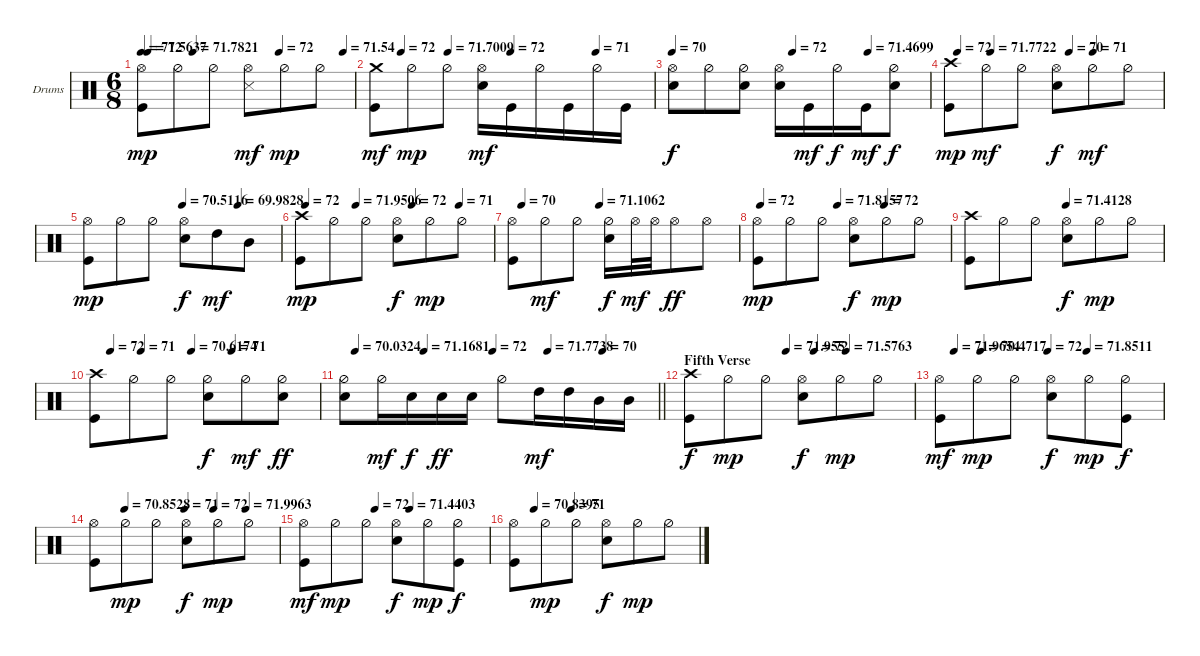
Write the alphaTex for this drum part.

\bracketExtendMode groupsimilarinstruments
\firstSystemTrackNameOrientation horizontal
\otherSystemsTrackNameOrientation horizontal
\track ("Drums" "Drums") {instrument percussion}
\staff {score}
\articulation defaults
\ts (6 8)
\tempo
71.5637
\tempo (72 0.03125)
\tempo (71.7821 0.24375)
\tempo (72 0.65)
\tempo (71.54 0.95)
\accidentals auto
\clef neutral
\ottava regular
\simile none
\ks c
("Hi-Hat (open)" "Kick (hit)").8{dy mp} "Hi-Hat (half)".8 "Hi-Hat (half)".8 ("Hi-Hat (open)" "Snare (side stick) 3").8{dy mf} "Hi-Hat (half)".8{dy mp} "Hi-Hat (half)".8 |
\tempo (72 0.09375)
\tempo (71.7009 0.2625)
\tempo (72 0.4875)
\tempo (71 0.79375)
("Crash medium (hit)" "Kick (hit)").8{dy mf} "Hi-Hat (half)".8{dy mp} "Hi-Hat (half)".8 ("Hi-Hat (open)" "Snare (hit) 2").16{dy mf} "Kick (hit)".16 "Hi-Hat (half)".16 "Kick (hit)".16 "Hi-Hat (half)".16 "Kick (hit)".16 |
\tempo 70
\tempo (72 0.46875)
\tempo (71.4699 0.7625)
("Hi-Hat (open)" "Snare (hit) 2").8{dy f} "Hi-Hat (half)".8 ("Hi-Hat (half)" "Snare (hit) 2").8 ("Hi-Hat (open)" "Snare (hit) 2").16 "Kick (hit)".16{dy mf} "Hi-Hat (half)".16{dy f} "Kick (hit)".16{dy mf} ("Hi-Hat (half)" "Snare (hit) 2").8{dy f} |
\tempo (72 0.0375)
\tempo (71.7722 0.19375)
\tempo (70 0.5625)
\tempo (71 0.675)
("Crash high (hit)" "Kick (hit)").8{dy mp} "Hi-Hat (half)".8{dy mf} "Hi-Hat (half)".8 ("Hi-Hat (open)" "Snare (hit) 2").8{dy f} "Hi-Hat (half)".8{dy mf} "Hi-Hat (half)".8 |
\tempo (70.5116 0.49375)
\tempo (69.9828 0.78125)
("Hi-Hat (open)" "Kick (hit)").8{dy mp} "Hi-Hat (half)".8 "Hi-Hat (half)".8 ("Hi-Hat (open)" "Snare (hit) 2").8{dy f} "High Tom (hit)".8{dy mf} "Mid Tom (hit)".8 |
\tempo (72 0.025)
\tempo (71.9506 0.2875)
\tempo (72 0.58125)
\tempo (71 0.825)
("Crash high (hit)" "Kick (hit)").8{dy mp} "Hi-Hat (half)".8 "Hi-Hat (half)".8 ("Hi-Hat (open)" "Snare (hit) 2").8{dy f} "Hi-Hat (half)".8{dy mp} "Hi-Hat (half)".8 |
\tempo (70 0.04375)
\tempo (71.1062 0.3875)
("Hi-Hat (open)" "Kick (hit)").8 "Hi-Hat (half)".8{dy mf} "Hi-Hat (half)".8 ("Hi-Hat (half)" "Snare (hit) 2").16{dy f} "Hi-Hat (open)".32{dy mf} "Hi-Hat (open)".32 "Hi-Hat (open)".8{dy ff} "Hi-Hat (open)".8 |
\tempo (72 0.01875)
\tempo (71.8157 0.41875)
\tempo (72 0.6625)
("Hi-Hat (open)" "Kick (hit)").8{dy mp} "Hi-Hat (half)".8 "Hi-Hat (half)".8 ("Hi-Hat (open)" "Snare (hit) 2").8{dy f} "Hi-Hat (half)".8{dy mp} "Hi-Hat (half)".8 |
\tempo (71.4128 0.5)
("Crash high (hit)" "Kick (hit)").8 "Hi-Hat (half)".8 "Hi-Hat (half)".8 ("Hi-Hat (open)" "Snare (hit) 2").8{dy f} "Hi-Hat (half)".8{dy mp} "Hi-Hat (half)".8 |
\tempo (72 0.06875)
\tempo (71 0.20625)
\tempo (70.6174 0.43125)
\tempo (71 0.6125)
("Crash high (hit)" "Kick (hit)").8 "Hi-Hat (half)".8 "Hi-Hat (half)".8 ("Hi-Hat (half)" "Snare (hit) 2").8{dy f} "Hi-Hat (half)".8{dy mf} ("Hi-Hat (half)" "Snare (hit) 2").8{dy ff} |
\tempo (70.0324 0.0375)
\tempo (71.1681 0.25625)
\tempo (72 0.475)
\tempo (71.7738 0.65)
\tempo (70 0.825)
\barLineRight lightlight
("Hi-Hat (half)" "Snare (hit) 2").8 "Hi-Hat (half)".16{dy mf} "Snare (hit) 2".16{dy f} "Snare (hit) 2".16{dy ff} "Snare (hit) 2".16 "Hi-Hat (half)".8 "High Tom (hit)".16{dy mf} "High Tom (hit)".16 "Mid Tom (hit)".16 "Mid Tom (hit)".16 |
\section ("" "Fifth Verse")
\tempo (71.955 0.43125)
\tempo (72 0.55625)
\tempo (71.5763 0.7)
("Crash high (hit)" "Kick (hit)").8{dy f} "Hi-Hat (half)".8{dy mp} "Hi-Hat (half)".8 ("Hi-Hat (open)" "Snare (hit) 2").8{dy f} "Hi-Hat (half)".8{dy mp} "Hi-Hat (half)".8 |
\tempo (71.9654 0.06875)
\tempo (70.4717 0.1875)
\tempo (72 0.4875)
\tempo (71.8511 0.6625)
("Hi-Hat (open)" "Kick (hit)").8{dy mf} "Hi-Hat (half)".8{dy mp} "Hi-Hat (half)".8 ("Hi-Hat (open)" "Snare (hit) 2").8{dy f} "Hi-Hat (half)".8{dy mp} ("Hi-Hat (half)" "Kick (hit)").8{dy f} |
\tempo (70.8528 0.16875)
\tempo (71 0.49375)
\tempo (72 0.65)
\tempo (71.9963 0.825)
("Hi-Hat (open)" "Kick (hit)").8 "Hi-Hat (half)".8{dy mp} "Hi-Hat (half)".8 ("Hi-Hat (open)" "Snare (hit) 2").8{dy f} "Hi-Hat (half)".8{dy mp} "Hi-Hat (half)".8 |
\tempo (72 0.3875)
\tempo (71.4403 0.575)
("Hi-Hat (open)" "Kick (hit)").8{dy mf} "Hi-Hat (half)".8{dy mp} "Hi-Hat (half)".8 ("Hi-Hat (open)" "Snare (hit) 2").8{dy f} "Hi-Hat (half)".8{dy mp} ("Hi-Hat (half)" "Kick (hit)").8{dy f} |
\tempo (70.8395 0.1125)
\tempo (71 0.3125)
("Hi-Hat (open)" "Kick (hit)").8 "Hi-Hat (half)".8{dy mp} "Hi-Hat (half)".8 ("Hi-Hat (open)" "Snare (hit) 2").8{dy f} "Hi-Hat (half)".8{dy mp} "Hi-Hat (half)".8
